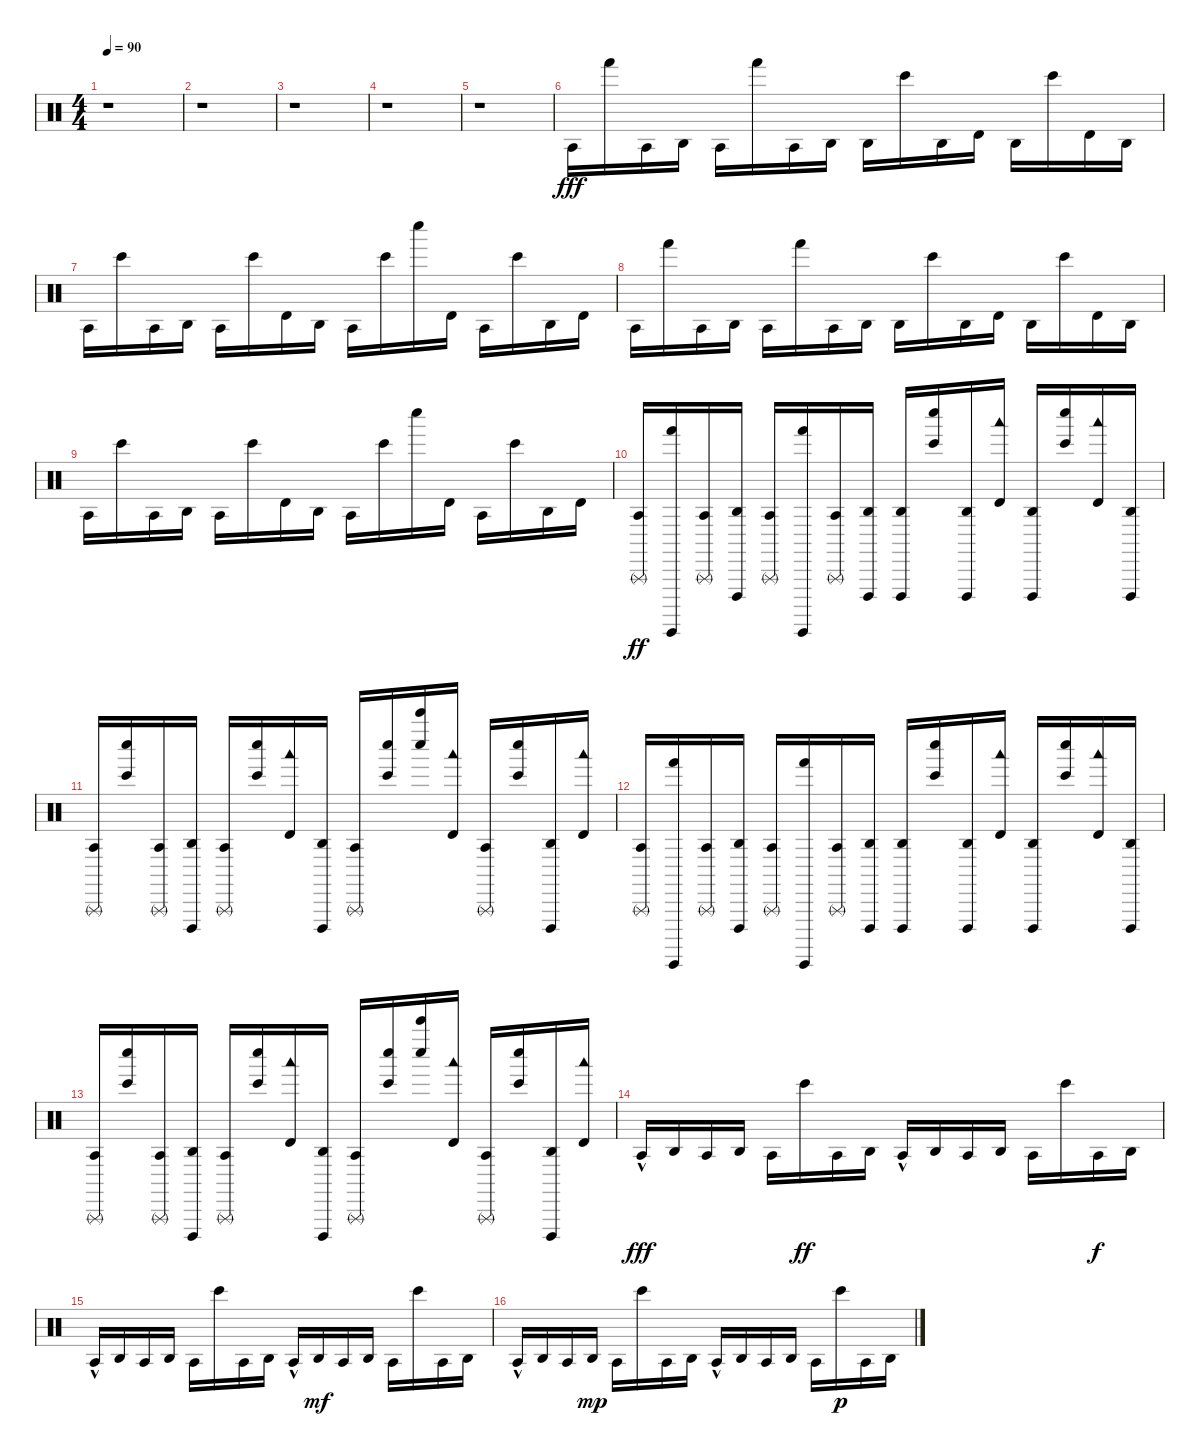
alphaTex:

\track "" {instrument percussion}
\staff {score}
\articulation defaults
\ts (4 4)
\tempo 90
\clef neutral
\ks c
r.1{dy ff} |
r.1 |
r.1 |
r.1 |
r.1 |
"Agogo tow (hit)".16{dy fff} "Hand (hit)".16 "Agogo tow (hit)".16 "Agogo high (hit)".16 "Agogo tow (hit)".16 "Hand (hit)".16 "Agogo tow (hit)".16 "Agogo high (hit)".16 "Agogo high (hit)".16 "Bongo High (hit)".16 "Agogo high (hit)".16 "Timbale high (hit)".16 "Agogo high (hit)".16 "Bongo High (hit)".16 "Timbale high (hit)".16 "Agogo high (hit)".16 |
"Agogo tow (hit)".16 "Bongo High (hit)".16 "Agogo tow (hit)".16 "Agogo high (hit)".16 "Agogo tow (hit)".16 "Bongo High (hit)".16 "Timbale high (hit)".16 "Agogo high (hit)".16 "Agogo tow (hit)".16 "Bongo High (hit)".16 "Whistle low (hit)".16 "Timbale high (hit)".16 "Agogo tow (hit)".16 "Bongo High (hit)".16 "Agogo high (hit)".16 "Timbale high (hit)".16 |
"Agogo tow (hit)".16 "Hand (hit)".16 "Agogo tow (hit)".16 "Agogo high (hit)".16 "Agogo tow (hit)".16 "Hand (hit)".16 "Agogo tow (hit)".16 "Agogo high (hit)".16 "Agogo high (hit)".16 "Bongo High (hit)".16 "Agogo high (hit)".16 "Timbale high (hit)".16 "Agogo high (hit)".16 "Bongo High (hit)".16 "Timbale high (hit)".16 "Agogo high (hit)".16 |
"Agogo tow (hit)".16 "Bongo High (hit)".16 "Agogo tow (hit)".16 "Agogo high (hit)".16 "Agogo tow (hit)".16 "Bongo High (hit)".16 "Timbale high (hit)".16 "Agogo high (hit)".16 "Agogo tow (hit)".16 "Bongo High (hit)".16 "Whistle low (hit)".16 "Timbale high (hit)".16 "Agogo tow (hit)".16 "Bongo High (hit)".16 "Agogo high (hit)".16 "Timbale high (hit)".16 |
("Agogo tow (hit)" "Triangle (rnute)").16{dy ff} ("Hand (hit)" "Guiro (hit)").16 ("Agogo tow (hit)" "Triangle (rnute)").16 ("Agogo high (hit)" "Cuica (open)").16 ("Agogo tow (hit)" "Triangle (rnute)").16 ("Hand (hit)" "Guiro (hit)").16 ("Agogo tow (hit)" "Triangle (rnute)").16 ("Agogo high (hit)" "Cuica (open)").16 ("Agogo high (hit)" "Cuica (open)").16 ("Bongo High (hit)" "Whistle low (hit)").16 ("Agogo high (hit)" "Cuica (open)").16 ("Timbale high (hit)" "Woodblock low (hit)").16 ("Agogo high (hit)" "Cuica (open)").16 ("Bongo High (hit)" "Whistle low (hit)").16 ("Timbale high (hit)" "Woodblock low (hit)").16 ("Agogo high (hit)" "Cuica (open)").16 |
("Agogo tow (hit)" "Triangle (rnute)").16 ("Bongo High (hit)" "Whistle low (hit)").16 ("Agogo tow (hit)" "Triangle (rnute)").16 ("Agogo high (hit)" "Cuica (open)").16 ("Agogo tow (hit)" "Triangle (rnute)").16 ("Bongo High (hit)" "Whistle low (hit)").16 ("Timbale high (hit)" "Woodblock low (hit)").16 ("Agogo high (hit)" "Cuica (open)").16 ("Agogo tow (hit)" "Triangle (rnute)").16 ("Bongo High (hit)" "Whistle low (hit)").16 ("Whistle low (hit)" "Bell Tree (hit)").16 ("Timbale high (hit)" "Woodblock low (hit)").16 ("Agogo tow (hit)" "Triangle (rnute)").16 ("Bongo High (hit)" "Whistle low (hit)").16 ("Agogo high (hit)" "Cuica (open)").16 ("Timbale high (hit)" "Woodblock low (hit)").16 |
("Agogo tow (hit)" "Triangle (rnute)").16 ("Hand (hit)" "Guiro (hit)").16 ("Agogo tow (hit)" "Triangle (rnute)").16 ("Agogo high (hit)" "Cuica (open)").16 ("Agogo tow (hit)" "Triangle (rnute)").16 ("Hand (hit)" "Guiro (hit)").16 ("Agogo tow (hit)" "Triangle (rnute)").16 ("Agogo high (hit)" "Cuica (open)").16 ("Agogo high (hit)" "Cuica (open)").16 ("Bongo High (hit)" "Whistle low (hit)").16 ("Agogo high (hit)" "Cuica (open)").16 ("Timbale high (hit)" "Woodblock low (hit)").16 ("Agogo high (hit)" "Cuica (open)").16 ("Bongo High (hit)" "Whistle low (hit)").16 ("Timbale high (hit)" "Woodblock low (hit)").16 ("Agogo high (hit)" "Cuica (open)").16 |
("Agogo tow (hit)" "Triangle (rnute)").16 ("Bongo High (hit)" "Whistle low (hit)").16 ("Agogo tow (hit)" "Triangle (rnute)").16 ("Agogo high (hit)" "Cuica (open)").16 ("Agogo tow (hit)" "Triangle (rnute)").16 ("Bongo High (hit)" "Whistle low (hit)").16 ("Timbale high (hit)" "Woodblock low (hit)").16 ("Agogo high (hit)" "Cuica (open)").16 ("Agogo tow (hit)" "Triangle (rnute)").16 ("Bongo High (hit)" "Whistle low (hit)").16 ("Whistle low (hit)" "Bell Tree (hit)").16 ("Timbale high (hit)" "Woodblock low (hit)").16 ("Agogo tow (hit)" "Triangle (rnute)").16 ("Bongo High (hit)" "Whistle low (hit)").16 ("Agogo high (hit)" "Cuica (open)").16 ("Timbale high (hit)" "Woodblock low (hit)").16 |
"Agogo tow (hit)"{hac}.16{dy fff} "Agogo high (hit)".16 "Agogo tow (hit)".16 "Agogo high (hit)".16 "Agogo tow (hit)".16 "Bongo High (hit)".16{dy ff} "Agogo tow (hit)".16 "Agogo high (hit)".16 "Agogo tow (hit)"{hac}.16 "Agogo high (hit)".16 "Agogo tow (hit)".16 "Agogo high (hit)".16 "Agogo tow (hit)".16 "Bongo High (hit)".16 "Agogo tow (hit)".16{dy f} "Agogo high (hit)".16 |
"Agogo tow (hit)"{hac}.16 "Agogo high (hit)".16 "Agogo tow (hit)".16 "Agogo high (hit)".16 "Agogo tow (hit)".16 "Bongo High (hit)".16 "Agogo tow (hit)".16 "Agogo high (hit)".16 "Agogo tow (hit)"{hac}.16 "Agogo high (hit)".16{dy mf} "Agogo tow (hit)".16 "Agogo high (hit)".16 "Agogo tow (hit)".16 "Bongo High (hit)".16 "Agogo tow (hit)".16 "Agogo high (hit)".16 |
"Agogo tow (hit)"{hac}.16 "Agogo high (hit)".16 "Agogo tow (hit)".16 "Agogo high (hit)".16{dy mp} "Agogo tow (hit)".16 "Bongo High (hit)".16 "Agogo tow (hit)".16 "Agogo high (hit)".16 "Agogo tow (hit)"{hac}.16 "Agogo high (hit)".16 "Agogo tow (hit)".16 "Agogo high (hit)".16 "Agogo tow (hit)".16 "Bongo High (hit)".16{dy p} "Agogo tow (hit)".16 "Agogo high (hit)".16
